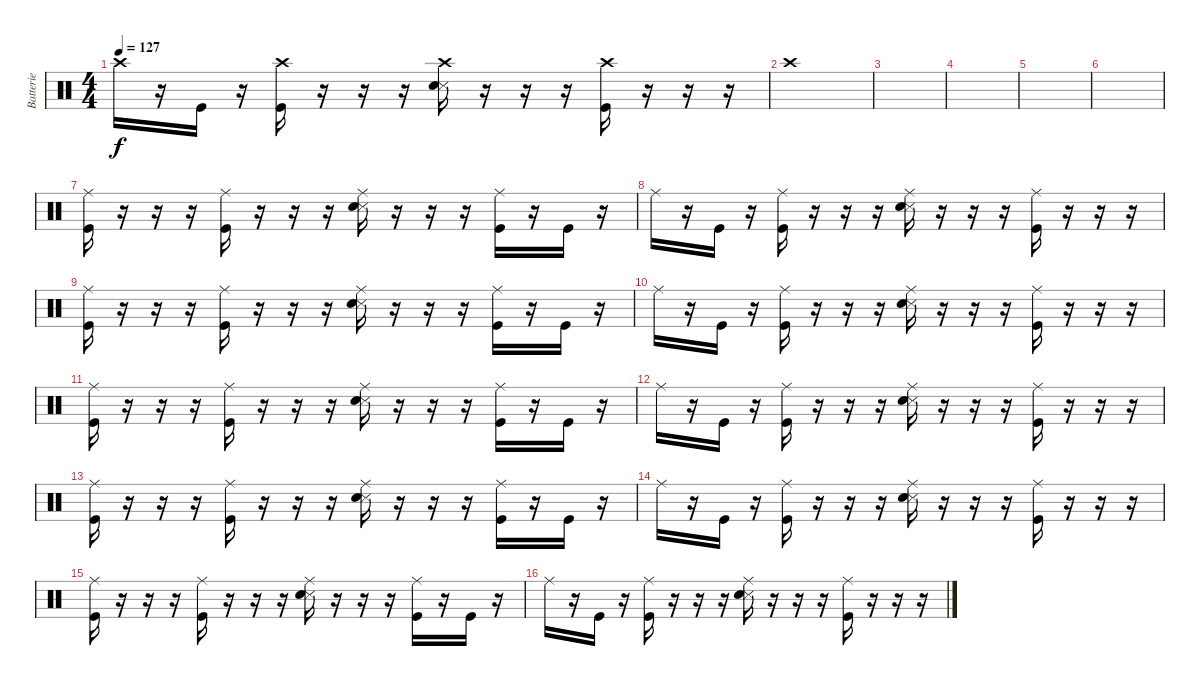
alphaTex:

\track ("Batterie" "Batterie") {instrument percussion}
\staff {score}
\articulation defaults
\ts (4 4)
\tempo 127
\clef neutral
\ks c "Crash high (hit)".16{dy f}
r.16 "Kick (hit)".16 r.16 ("Crash high (hit)" "Kick (hit)").16 r.16 r.16 r.16 ("Crash high (hit)" "Snare (side stick) 3" "Electric Snare (hit)").16 r.16 r.16 r.16 ("Crash high (hit)" "Kick (hit)").16 r.16 r.16 r.16 |
"Crash high (hit)".1 |
|
|
|
|
("Ride (middle)" "Kick (hit)").16 r.16 r.16 r.16 ("Ride (middle)" "Kick (hit)").16 r.16 r.16 r.16 ("Ride (middle)" "Snare (side stick) 3" "Electric Snare (hit)").16 r.16 r.16 r.16 ("Ride (middle)" "Kick (hit)").16 r.16 "Kick (hit)".16 r.16 |
"Ride (middle)".16 r.16 "Kick (hit)".16 r.16 ("Ride (middle)" "Kick (hit)").16 r.16 r.16 r.16 ("Ride (middle)" "Snare (side stick) 3" "Electric Snare (hit)").16 r.16 r.16 r.16 ("Ride (middle)" "Kick (hit)").16 r.16 r.16 r.16 |
("Ride (middle)" "Kick (hit)").16 r.16 r.16 r.16 ("Ride (middle)" "Kick (hit)").16 r.16 r.16 r.16 ("Ride (middle)" "Snare (side stick) 3" "Electric Snare (hit)").16 r.16 r.16 r.16 ("Ride (middle)" "Kick (hit)").16 r.16 "Kick (hit)".16 r.16 |
"Ride (middle)".16 r.16 "Kick (hit)".16 r.16 ("Ride (middle)" "Kick (hit)").16 r.16 r.16 r.16 ("Ride (middle)" "Snare (side stick) 3" "Electric Snare (hit)").16 r.16 r.16 r.16 ("Ride (middle)" "Kick (hit)").16 r.16 r.16 r.16 |
("Ride (middle)" "Kick (hit)").16 r.16 r.16 r.16 ("Ride (middle)" "Kick (hit)").16 r.16 r.16 r.16 ("Ride (middle)" "Snare (side stick) 3" "Electric Snare (hit)").16 r.16 r.16 r.16 ("Ride (middle)" "Kick (hit)").16 r.16 "Kick (hit)".16 r.16 |
"Ride (middle)".16 r.16 "Kick (hit)".16 r.16 ("Ride (middle)" "Kick (hit)").16 r.16 r.16 r.16 ("Ride (middle)" "Snare (side stick) 3" "Electric Snare (hit)").16 r.16 r.16 r.16 ("Ride (middle)" "Kick (hit)").16 r.16 r.16 r.16 |
("Ride (middle)" "Kick (hit)").16 r.16 r.16 r.16 ("Ride (middle)" "Kick (hit)").16 r.16 r.16 r.16 ("Ride (middle)" "Snare (side stick) 3" "Electric Snare (hit)").16 r.16 r.16 r.16 ("Ride (middle)" "Kick (hit)").16 r.16 "Kick (hit)".16 r.16 |
"Ride (middle)".16 r.16 "Kick (hit)".16 r.16 ("Ride (middle)" "Kick (hit)").16 r.16 r.16 r.16 ("Ride (middle)" "Snare (side stick) 3" "Electric Snare (hit)").16 r.16 r.16 r.16 ("Ride (middle)" "Kick (hit)").16 r.16 r.16 r.16 |
("Ride (middle)" "Kick (hit)").16 r.16 r.16 r.16 ("Ride (middle)" "Kick (hit)").16 r.16 r.16 r.16 ("Ride (middle)" "Snare (side stick) 3" "Electric Snare (hit)").16 r.16 r.16 r.16 ("Ride (middle)" "Kick (hit)").16 r.16 "Kick (hit)".16 r.16 |
"Ride (middle)".16 r.16 "Kick (hit)".16 r.16 ("Ride (middle)" "Kick (hit)").16 r.16 r.16 r.16 ("Ride (middle)" "Snare (side stick) 3" "Electric Snare (hit)").16 r.16 r.16 r.16 ("Ride (middle)" "Kick (hit)").16 r.16 r.16 r.16
